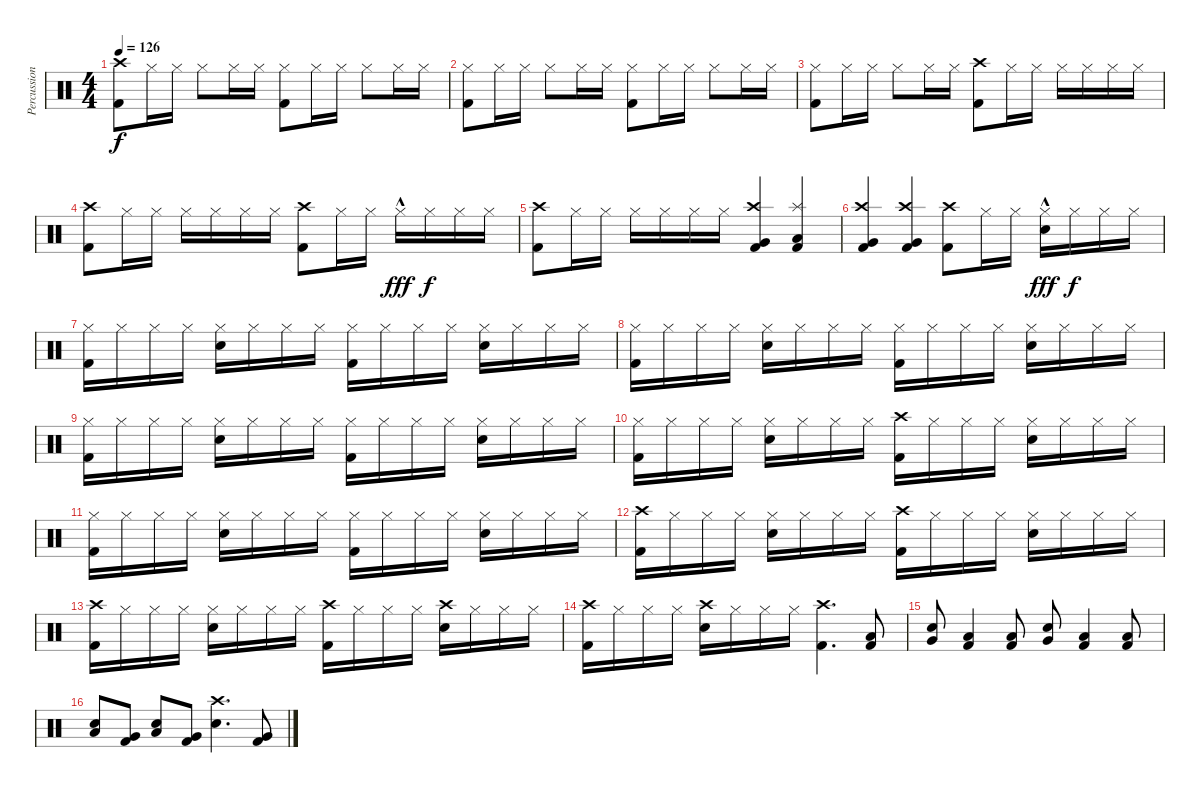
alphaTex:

\track ("Percussion" "Percussion") {instrument percussion}
\staff {score}
\articulation defaults
\ts (4 4)
\tempo 126
\clef neutral
\ks c
("Kick (hit) 2" "Crash high (hit)").8{dy f} "Hi-Hat (closed)".16 "Hi-Hat (closed)".16 "Hi-Hat (closed)".8 "Hi-Hat (closed)".16 "Hi-Hat (closed)".16 ("Hi-Hat (closed)" "Kick (hit) 2").8 "Hi-Hat (closed)".16 "Hi-Hat (closed)".16 "Hi-Hat (closed)".8 "Hi-Hat (closed)".16 "Hi-Hat (closed)".16 |
("Hi-Hat (closed)" "Kick (hit) 2").8 "Hi-Hat (closed)".16 "Hi-Hat (closed)".16 "Hi-Hat (closed)".8 "Hi-Hat (closed)".16 "Hi-Hat (closed)".16 ("Hi-Hat (closed)" "Kick (hit) 2").8 "Hi-Hat (closed)".16 "Hi-Hat (closed)".16 "Hi-Hat (closed)".8 "Hi-Hat (closed)".16 "Hi-Hat (closed)".16 |
("Hi-Hat (closed)" "Kick (hit) 2").8 "Hi-Hat (closed)".16 "Hi-Hat (closed)".16 "Hi-Hat (closed)".8 "Hi-Hat (closed)".16 "Hi-Hat (closed)".16 ("Kick (hit) 2" "Crash high (hit)").8 "Hi-Hat (closed)".16 "Hi-Hat (closed)".16 "Hi-Hat (closed)".16 "Hi-Hat (closed)".16 "Hi-Hat (closed)".16 "Hi-Hat (closed)".16 |
("Kick (hit) 2" "Crash high (hit)").8 "Hi-Hat (closed)".16 "Hi-Hat (closed)".16 "Hi-Hat (closed)".16 "Hi-Hat (closed)".16 "Hi-Hat (closed)".16 "Hi-Hat (closed)".16 ("Kick (hit) 2" "Crash high (hit)").8 "Hi-Hat (closed)".16 "Hi-Hat (closed)".16 "Hi-Hat (closed)"{hac}.16{dy fff} "Hi-Hat (closed)".16{dy f} "Hi-Hat (closed)".16 "Hi-Hat (closed)".16 |
("Kick (hit) 2" "Crash high (hit)").8 "Hi-Hat (closed)".16 "Hi-Hat (closed)".16 "Hi-Hat (closed)".16 "Hi-Hat (closed)".16 "Hi-Hat (closed)".16 "Hi-Hat (closed)".16 ("Kick (hit) 2" "Crash high (hit)" "Very Low Tom (hit)").4 ("Kick (hit) 2" "Splash (hit)" "Low Floor Tom (hit)").4 |
("Kick (hit) 2" "Crash high (hit)" "Very Low Tom (hit)").4 ("Kick (hit) 2" "Crash high (hit)" "Very Low Tom (hit)").4 ("Kick (hit) 2" "Crash high (hit)").8 "Hi-Hat (closed)".16 "Hi-Hat (closed)".16 ("Snare (hit) 2" "Hi-Hat (closed)"{hac}).16{dy fff} "Hi-Hat (closed)".16{dy f} "Hi-Hat (closed)".16 "Hi-Hat (closed)".16 |
("Kick (hit) 2" "Hi-Hat (closed)").16 "Hi-Hat (closed)".16 "Hi-Hat (closed)".16 "Hi-Hat (closed)".16 ("Snare (hit) 2" "Hi-Hat (closed)").16 "Hi-Hat (closed)".16 "Hi-Hat (closed)".16 "Hi-Hat (closed)".16 ("Kick (hit) 2" "Hi-Hat (closed)").16 "Hi-Hat (closed)".16 "Hi-Hat (closed)".16 "Hi-Hat (closed)".16 ("Snare (hit) 2" "Hi-Hat (closed)").16 "Hi-Hat (closed)".16 "Hi-Hat (closed)".16 "Hi-Hat (closed)".16 |
("Kick (hit) 2" "Hi-Hat (closed)").16 "Hi-Hat (closed)".16 "Hi-Hat (closed)".16 "Hi-Hat (closed)".16 ("Snare (hit) 2" "Hi-Hat (closed)").16 "Hi-Hat (closed)".16 "Hi-Hat (closed)".16 "Hi-Hat (closed)".16 ("Kick (hit) 2" "Hi-Hat (closed)").16 "Hi-Hat (closed)".16 "Hi-Hat (closed)".16 "Hi-Hat (closed)".16 ("Snare (hit) 2" "Hi-Hat (closed)").16 "Hi-Hat (closed)".16 "Hi-Hat (closed)".16 "Hi-Hat (closed)".16 |
("Kick (hit) 2" "Hi-Hat (closed)").16 "Hi-Hat (closed)".16 "Hi-Hat (closed)".16 "Hi-Hat (closed)".16 ("Snare (hit) 2" "Hi-Hat (closed)").16 "Hi-Hat (closed)".16 "Hi-Hat (closed)".16 "Hi-Hat (closed)".16 ("Kick (hit) 2" "Hi-Hat (closed)").16 "Hi-Hat (closed)".16 "Hi-Hat (closed)".16 "Hi-Hat (closed)".16 ("Snare (hit) 2" "Hi-Hat (closed)").16 "Hi-Hat (closed)".16 "Hi-Hat (closed)".16 "Hi-Hat (closed)".16 |
("Kick (hit) 2" "Hi-Hat (closed)").16 "Hi-Hat (closed)".16 "Hi-Hat (closed)".16 "Hi-Hat (closed)".16 ("Snare (hit) 2" "Hi-Hat (closed)").16 "Hi-Hat (closed)".16 "Hi-Hat (closed)".16 "Hi-Hat (closed)".16 ("Kick (hit) 2" "Crash high (hit)").16 "Hi-Hat (closed)".16 "Hi-Hat (closed)".16 "Hi-Hat (closed)".16 ("Snare (hit) 2" "Hi-Hat (closed)").16 "Hi-Hat (closed)".16 "Hi-Hat (closed)".16 "Hi-Hat (closed)".16 |
("Kick (hit) 2" "Hi-Hat (closed)").16 "Hi-Hat (closed)".16 "Hi-Hat (closed)".16 "Hi-Hat (closed)".16 ("Snare (hit) 2" "Hi-Hat (closed)").16 "Hi-Hat (closed)".16 "Hi-Hat (closed)".16 "Hi-Hat (closed)".16 ("Kick (hit) 2" "Hi-Hat (closed)").16 "Hi-Hat (closed)".16 "Hi-Hat (closed)".16 "Hi-Hat (closed)".16 ("Snare (hit) 2" "Hi-Hat (closed)").16 "Hi-Hat (closed)".16 "Hi-Hat (closed)".16 "Hi-Hat (closed)".16 |
("Kick (hit) 2" "Crash high (hit)").16 "Hi-Hat (closed)".16 "Hi-Hat (closed)".16 "Hi-Hat (closed)".16 ("Snare (hit) 2" "Hi-Hat (closed)").16 "Hi-Hat (closed)".16 "Hi-Hat (closed)".16 "Hi-Hat (closed)".16 ("Kick (hit) 2" "Crash high (hit)").16 "Hi-Hat (closed)".16 "Hi-Hat (closed)".16 "Hi-Hat (closed)".16 ("Snare (hit) 2" "Hi-Hat (closed)").16 "Hi-Hat (closed)".16 "Hi-Hat (closed)".16 "Hi-Hat (closed)".16 |
("Kick (hit) 2" "Crash high (hit)").16 "Hi-Hat (closed)".16 "Hi-Hat (closed)".16 "Hi-Hat (closed)".16 ("Snare (hit) 2" "Hi-Hat (closed)").16 "Hi-Hat (closed)".16 "Hi-Hat (closed)".16 "Hi-Hat (closed)".16 ("Kick (hit) 2" "Crash high (hit)").16 "Hi-Hat (closed)".16 "Hi-Hat (closed)".16 "Hi-Hat (closed)".16 ("Snare (hit) 2" "Crash high (hit)").16 "Hi-Hat (closed)".16 "Hi-Hat (closed)".16 "Hi-Hat (closed)".16 |
("Kick (hit) 2" "Crash high (hit)").16 "Hi-Hat (closed)".16 "Hi-Hat (closed)".16 "Hi-Hat (closed)".16 ("Snare (hit) 2" "Crash high (hit)").16 "Hi-Hat (closed)".16 "Hi-Hat (closed)".16 "Hi-Hat (closed)".16 ("Kick (hit) 2" "Crash high (hit)").4{d volume 16} ("Low Floor Tom (hit)" "Kick (hit) 2").8 |
("Snare (hit) 2" "Very Low Tom (hit)").8 ("Kick (hit) 2" "Low Floor Tom (hit)").4 ("Kick (hit) 2" "Low Floor Tom (hit)").8 ("Snare (hit) 2" "Very Low Tom (hit)").8 ("Kick (hit) 2" "Low Floor Tom (hit)").4 ("Kick (hit) 2" "Low Floor Tom (hit)").8 |
("Snare (hit) 2" "Low Floor Tom (hit)").8 ("Kick (hit) 2" "Very Low Tom (hit)").8 ("Snare (hit) 2" "Low Floor Tom (hit)").8 ("Kick (hit) 2" "Very Low Tom (hit)").8 ("Snare (hit) 2" "Crash high (hit)").4{d} ("Kick (hit) 2" "Very Low Tom (hit)").8
